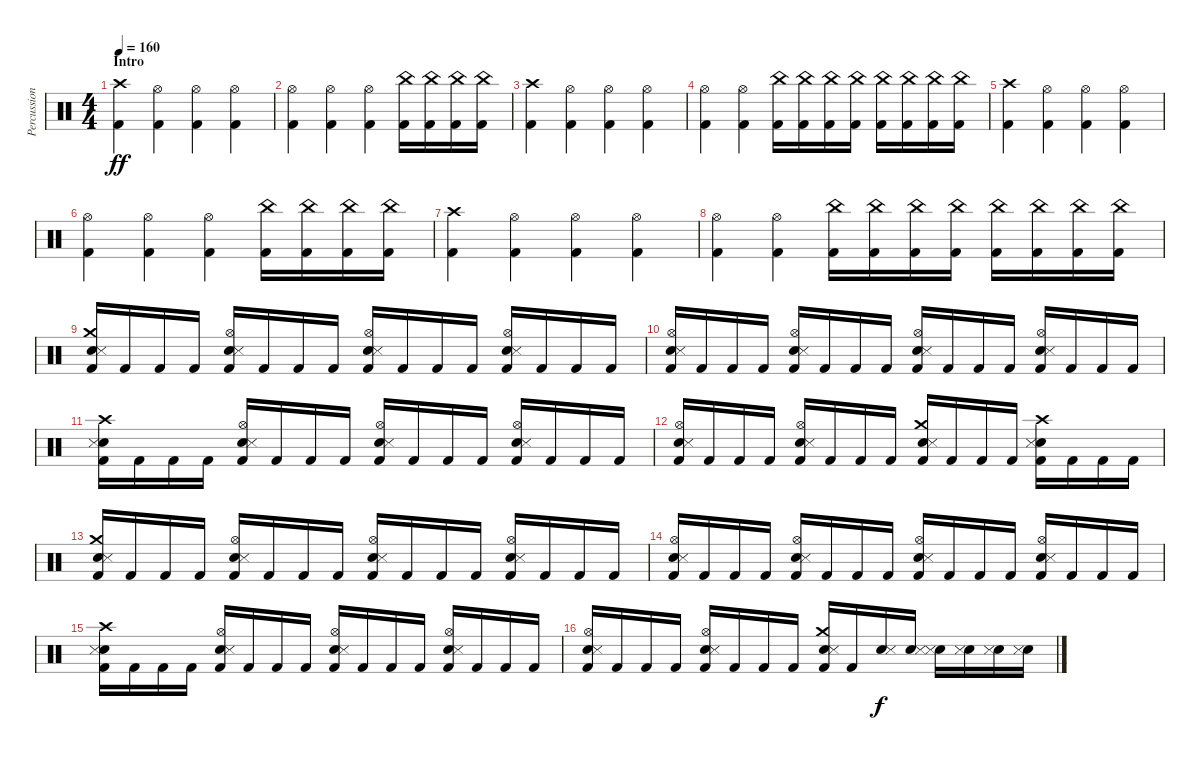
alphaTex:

\track ("Percussions" "Percussion") {instrument percussion}
\staff {score}
\articulation defaults
\ts (4 4)
\section ("" "Intro")
\tempo 160
\clef neutral
\ks c
("Crash high (hit)" "Kick (hit) 2").4{dy ff} ("Hi-Hat (open)" "Kick (hit) 2").4 ("Hi-Hat (open)" "Kick (hit) 2").4 ("Hi-Hat (open)" "Kick (hit) 2").4 |
("Hi-Hat (open)" "Kick (hit) 2").4 ("Hi-Hat (open)" "Kick (hit) 2").4 ("Hi-Hat (open)" "Kick (hit) 2").4 ("China (hit)" "Kick (hit) 2").16 ("China (hit)" "Kick (hit) 2").16 ("China (hit)" "Kick (hit) 2").16 ("China (hit)" "Kick (hit) 2").16 |
("Crash high (hit)" "Kick (hit) 2").4 ("Hi-Hat (open)" "Kick (hit) 2").4 ("Hi-Hat (open)" "Kick (hit) 2").4 ("Hi-Hat (open)" "Kick (hit) 2").4 |
("Hi-Hat (open)" "Kick (hit) 2").4 ("Hi-Hat (open)" "Kick (hit) 2").4 ("China (hit)" "Kick (hit) 2").16 ("China (hit)" "Kick (hit) 2").16 ("China (hit)" "Kick (hit) 2").16 ("China (hit)" "Kick (hit) 2").16 ("China (hit)" "Kick (hit) 2").16 ("China (hit)" "Kick (hit) 2").16 ("China (hit)" "Kick (hit) 2").16 ("China (hit)" "Kick (hit) 2").16 |
("Crash high (hit)" "Kick (hit) 2").4 ("Hi-Hat (open)" "Kick (hit) 2").4 ("Hi-Hat (open)" "Kick (hit) 2").4 ("Hi-Hat (open)" "Kick (hit) 2").4 |
("Hi-Hat (open)" "Kick (hit) 2").4 ("Hi-Hat (open)" "Kick (hit) 2").4 ("Hi-Hat (open)" "Kick (hit) 2").4 ("China (hit)" "Kick (hit) 2").16 ("China (hit)" "Kick (hit) 2").16 ("China (hit)" "Kick (hit) 2").16 ("China (hit)" "Kick (hit) 2").16 |
("Crash high (hit)" "Kick (hit) 2").4 ("Hi-Hat (open)" "Kick (hit) 2").4 ("Hi-Hat (open)" "Kick (hit) 2").4 ("Hi-Hat (open)" "Kick (hit) 2").4 |
("Hi-Hat (open)" "Kick (hit) 2").4 ("Hi-Hat (open)" "Kick (hit) 2").4 ("China (hit)" "Kick (hit) 2").16 ("China (hit)" "Kick (hit) 2").16 ("China (hit)" "Kick (hit) 2").16 ("China (hit)" "Kick (hit) 2").16 ("China (hit)" "Kick (hit) 2").16 ("China (hit)" "Kick (hit) 2").16 ("China (hit)" "Kick (hit) 2").16 ("China (hit)" "Kick (hit) 2").16 |
("Crash medium (hit)" "Electric Snare (hit)" "Snare (side stick) 3" "Kick (hit) 2").16 "Kick (hit) 2".16 "Kick (hit) 2".16 "Kick (hit) 2".16 ("Hi-Hat (open)" "Electric Snare (hit)" "Snare (side stick) 3" "Kick (hit) 2").16 "Kick (hit) 2".16 "Kick (hit) 2".16 "Kick (hit) 2".16 ("Hi-Hat (open)" "Electric Snare (hit)" "Snare (side stick) 3" "Kick (hit) 2").16 "Kick (hit) 2".16 "Kick (hit) 2".16 "Kick (hit) 2".16 ("Hi-Hat (open)" "Electric Snare (hit)" "Snare (side stick) 3" "Kick (hit) 2").16 "Kick (hit) 2".16 "Kick (hit) 2".16 "Kick (hit) 2".16 |
("Hi-Hat (open)" "Electric Snare (hit)" "Snare (side stick) 3" "Kick (hit) 2").16 "Kick (hit) 2".16 "Kick (hit) 2".16 "Kick (hit) 2".16 ("Hi-Hat (open)" "Electric Snare (hit)" "Snare (side stick) 3" "Kick (hit) 2").16 "Kick (hit) 2".16 "Kick (hit) 2".16 "Kick (hit) 2".16 ("Hi-Hat (open)" "Electric Snare (hit)" "Snare (side stick) 3" "Kick (hit) 2").16 "Kick (hit) 2".16 "Kick (hit) 2".16 "Kick (hit) 2".16 ("Hi-Hat (open)" "Electric Snare (hit)" "Snare (side stick) 3" "Kick (hit) 2").16 "Kick (hit) 2".16 "Kick (hit) 2".16 "Kick (hit) 2".16 |
("Crash high (hit)" "Electric Snare (hit)" "Snare (side stick) 3" "Kick (hit) 2").16 "Kick (hit) 2".16 "Kick (hit) 2".16 "Kick (hit) 2".16 ("Hi-Hat (open)" "Electric Snare (hit)" "Snare (side stick) 3" "Kick (hit) 2").16 "Kick (hit) 2".16 "Kick (hit) 2".16 "Kick (hit) 2".16 ("Hi-Hat (open)" "Electric Snare (hit)" "Snare (side stick) 3" "Kick (hit) 2").16 "Kick (hit) 2".16 "Kick (hit) 2".16 "Kick (hit) 2".16 ("Hi-Hat (open)" "Electric Snare (hit)" "Snare (side stick) 3" "Kick (hit) 2").16 "Kick (hit) 2".16 "Kick (hit) 2".16 "Kick (hit) 2".16 |
("Hi-Hat (open)" "Electric Snare (hit)" "Snare (side stick) 3" "Kick (hit) 2").16 "Kick (hit) 2".16 "Kick (hit) 2".16 "Kick (hit) 2".16 ("Hi-Hat (open)" "Electric Snare (hit)" "Snare (side stick) 3" "Kick (hit) 2").16 "Kick (hit) 2".16 "Kick (hit) 2".16 "Kick (hit) 2".16 ("Crash medium (hit)" "Electric Snare (hit)" "Snare (side stick) 3" "Kick (hit) 2").16 "Kick (hit) 2".16 "Kick (hit) 2".16 "Kick (hit) 2".16 ("Crash high (hit)" "Electric Snare (hit)" "Snare (side stick) 3" "Kick (hit) 2").16 "Kick (hit) 2".16 "Kick (hit) 2".16 "Kick (hit) 2".16 |
("Crash medium (hit)" "Electric Snare (hit)" "Snare (side stick) 3" "Kick (hit) 2").16 "Kick (hit) 2".16 "Kick (hit) 2".16 "Kick (hit) 2".16 ("Hi-Hat (open)" "Electric Snare (hit)" "Snare (side stick) 3" "Kick (hit) 2").16 "Kick (hit) 2".16 "Kick (hit) 2".16 "Kick (hit) 2".16 ("Hi-Hat (open)" "Electric Snare (hit)" "Snare (side stick) 3" "Kick (hit) 2").16 "Kick (hit) 2".16 "Kick (hit) 2".16 "Kick (hit) 2".16 ("Hi-Hat (open)" "Electric Snare (hit)" "Snare (side stick) 3" "Kick (hit) 2").16 "Kick (hit) 2".16 "Kick (hit) 2".16 "Kick (hit) 2".16 |
("Hi-Hat (open)" "Electric Snare (hit)" "Snare (side stick) 3" "Kick (hit) 2").16 "Kick (hit) 2".16 "Kick (hit) 2".16 "Kick (hit) 2".16 ("Hi-Hat (open)" "Electric Snare (hit)" "Snare (side stick) 3" "Kick (hit) 2").16 "Kick (hit) 2".16 "Kick (hit) 2".16 "Kick (hit) 2".16 ("Hi-Hat (open)" "Electric Snare (hit)" "Snare (side stick) 3" "Kick (hit) 2").16 "Kick (hit) 2".16 "Kick (hit) 2".16 "Kick (hit) 2".16 ("Hi-Hat (open)" "Electric Snare (hit)" "Snare (side stick) 3" "Kick (hit) 2").16 "Kick (hit) 2".16 "Kick (hit) 2".16 "Kick (hit) 2".16 |
("Crash high (hit)" "Electric Snare (hit)" "Snare (side stick) 3" "Kick (hit) 2").16 "Kick (hit) 2".16 "Kick (hit) 2".16 "Kick (hit) 2".16 ("Hi-Hat (open)" "Electric Snare (hit)" "Snare (side stick) 3" "Kick (hit) 2").16 "Kick (hit) 2".16 "Kick (hit) 2".16 "Kick (hit) 2".16 ("Hi-Hat (open)" "Electric Snare (hit)" "Snare (side stick) 3" "Kick (hit) 2").16 "Kick (hit) 2".16 "Kick (hit) 2".16 "Kick (hit) 2".16 ("Hi-Hat (open)" "Electric Snare (hit)" "Snare (side stick) 3" "Kick (hit) 2").16 "Kick (hit) 2".16 "Kick (hit) 2".16 "Kick (hit) 2".16 |
("Hi-Hat (open)" "Electric Snare (hit)" "Snare (side stick) 3" "Kick (hit) 2").16 "Kick (hit) 2".16 "Kick (hit) 2".16 "Kick (hit) 2".16 ("Hi-Hat (open)" "Electric Snare (hit)" "Snare (side stick) 3" "Kick (hit) 2").16 "Kick (hit) 2".16 "Kick (hit) 2".16 "Kick (hit) 2".16 ("Crash medium (hit)" "Electric Snare (hit)" "Snare (side stick) 3" "Kick (hit) 2").16 "Kick (hit) 2".16 ("Electric Snare (hit)" "Snare (side stick) 3").16{dy f} ("Electric Snare (hit)" "Snare (side stick) 3").16 ("Electric Snare (hit)" "Snare (side stick) 3").16 ("Electric Snare (hit)" "Snare (side stick) 3").16 ("Electric Snare (hit)" "Snare (side stick) 3").16 ("Electric Snare (hit)" "Snare (side stick) 3").16
